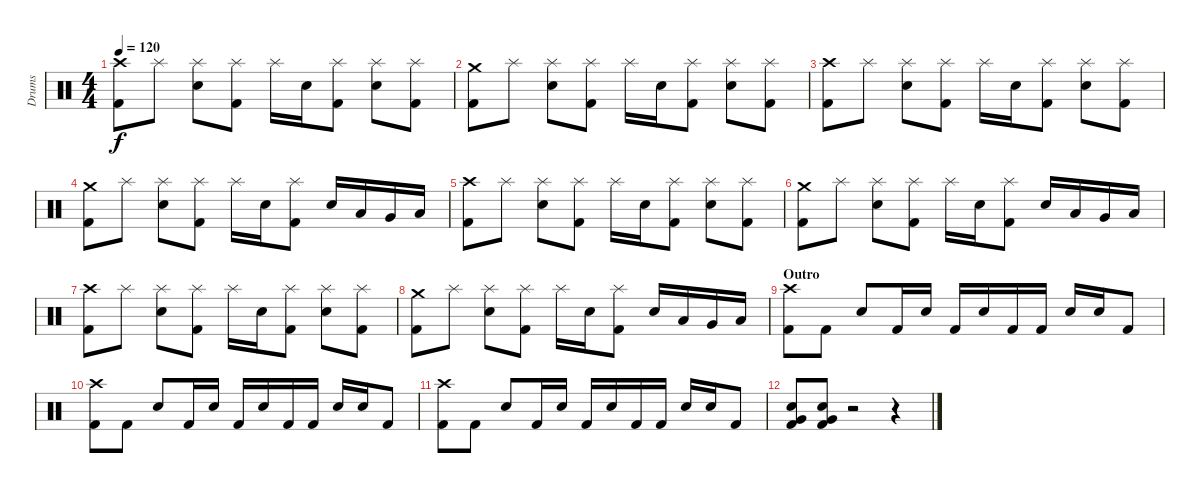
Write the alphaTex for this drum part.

\track ("Drums" "Drums") {instrument percussion}
\staff {score}
\articulation defaults
\ts (4 4)
\tempo 120
\clef neutral
\ks c
("Kick (hit) 2" "Crash high (hit)").8{dy f} "Splash (hit)".8 ("Electric Snare (hit)" "Splash (hit)").8 ("Kick (hit) 2" "Splash (hit)").8 "Splash (hit)".16 "Electric Snare (hit)".16 ("Kick (hit) 2" "Splash (hit)").8 ("Electric Snare (hit)" "Splash (hit)").8 ("Kick (hit) 2" "Splash (hit)").8 |
("Kick (hit) 2" "Crash medium (hit)").8 "Splash (hit)".8 ("Electric Snare (hit)" "Splash (hit)").8 ("Kick (hit) 2" "Splash (hit)").8 "Splash (hit)".16 "Electric Snare (hit)".16 ("Kick (hit) 2" "Splash (hit)").8 ("Electric Snare (hit)" "Splash (hit)").8 ("Kick (hit) 2" "Splash (hit)").8 |
("Kick (hit) 2" "Crash high (hit)").8 "Splash (hit)".8 ("Electric Snare (hit)" "Splash (hit)").8 ("Kick (hit) 2" "Splash (hit)").8 "Splash (hit)".16 "Electric Snare (hit)".16 ("Kick (hit) 2" "Splash (hit)").8 ("Electric Snare (hit)" "Splash (hit)").8 ("Kick (hit) 2" "Splash (hit)").8 |
("Kick (hit) 2" "Crash medium (hit)").8 "Splash (hit)".8 ("Electric Snare (hit)" "Splash (hit)").8 ("Kick (hit) 2" "Splash (hit)").8 "Splash (hit)".16 "Electric Snare (hit)".16 ("Kick (hit) 2" "Splash (hit)").8 "Electric Snare (hit)".16 "Low Tom (hit)".16 "Very Low Tom (hit)".16 "Low Floor Tom (hit)".16 |
("Kick (hit) 2" "Crash high (hit)").8 "Splash (hit)".8 ("Electric Snare (hit)" "Splash (hit)").8 ("Kick (hit) 2" "Splash (hit)").8 "Splash (hit)".16 "Electric Snare (hit)".16 ("Kick (hit) 2" "Splash (hit)").8 ("Electric Snare (hit)" "Splash (hit)").8 ("Kick (hit) 2" "Splash (hit)").8 |
("Kick (hit) 2" "Crash medium (hit)").8 "Splash (hit)".8 ("Electric Snare (hit)" "Splash (hit)").8 ("Kick (hit) 2" "Splash (hit)").8 "Splash (hit)".16 "Electric Snare (hit)".16 ("Kick (hit) 2" "Splash (hit)").8 "Electric Snare (hit)".16 "Low Tom (hit)".16 "Very Low Tom (hit)".16 "Low Floor Tom (hit)".16 |
("Kick (hit) 2" "Crash high (hit)").8 "Splash (hit)".8 ("Electric Snare (hit)" "Splash (hit)").8 ("Kick (hit) 2" "Splash (hit)").8 "Splash (hit)".16 "Electric Snare (hit)".16 ("Kick (hit) 2" "Splash (hit)").8 ("Electric Snare (hit)" "Splash (hit)").8 ("Kick (hit) 2" "Splash (hit)").8 |
("Kick (hit) 2" "Crash medium (hit)").8 "Splash (hit)".8 ("Electric Snare (hit)" "Splash (hit)").8 ("Kick (hit) 2" "Splash (hit)").8 "Splash (hit)".16 "Electric Snare (hit)".16 ("Kick (hit) 2" "Splash (hit)").8 "Electric Snare (hit)".16 "Low Tom (hit)".16 "Very Low Tom (hit)".16 "Low Floor Tom (hit)".16 |
\section ("" "Outro")
("Kick (hit) 2" "Crash high (hit)").8 "Kick (hit) 2".8 "Electric Snare (hit)".8 "Kick (hit) 2".16 "Electric Snare (hit)".16 "Kick (hit) 2".16 "Electric Snare (hit)".16 "Kick (hit) 2".16 "Kick (hit) 2".16 "Electric Snare (hit)".16 "Electric Snare (hit)".16 "Kick (hit) 2".8 |
("Kick (hit) 2" "Crash high (hit)").8 "Kick (hit) 2".8 "Electric Snare (hit)".8 "Kick (hit) 2".16 "Electric Snare (hit)".16 "Kick (hit) 2".16 "Electric Snare (hit)".16 "Kick (hit) 2".16 "Kick (hit) 2".16 "Electric Snare (hit)".16 "Electric Snare (hit)".16 "Kick (hit) 2".8 |
("Kick (hit) 2" "Crash high (hit)").8 "Kick (hit) 2".8 "Electric Snare (hit)".8 "Kick (hit) 2".16 "Electric Snare (hit)".16 "Kick (hit) 2".16 "Electric Snare (hit)".16 "Kick (hit) 2".16 "Kick (hit) 2".16 "Electric Snare (hit)".16 "Electric Snare (hit)".16 "Kick (hit) 2".8 |
("Very Low Tom (hit)" "Kick (hit) 2" "Electric Snare (hit)").8 ("Very Low Tom (hit)" "Kick (hit) 2" "Electric Snare (hit)").8 r.2 r.4
